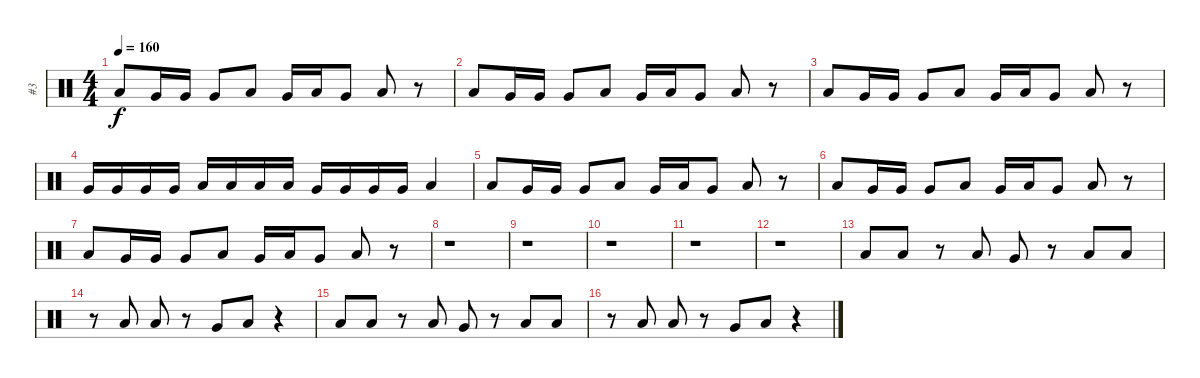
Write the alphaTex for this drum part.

\track ("#3" "#3") {instrument percussion}
\staff {score}
\articulation defaults
\ts (4 4)
\tempo 160
\clef neutral
\ks c "Low Tom (hit)".8{dy f} "Very Low Tom (hit)".16 "Very Low Tom (hit)".16 "Very Low Tom (hit)".8 "Low Tom (hit)".8 "Very Low Tom (hit)".16 "Low Tom (hit)".16 "Very Low Tom (hit)".8 "Low Tom (hit)".8
r.8 |
"Low Tom (hit)".8 "Very Low Tom (hit)".16 "Very Low Tom (hit)".16 "Very Low Tom (hit)".8 "Low Tom (hit)".8 "Very Low Tom (hit)".16 "Low Tom (hit)".16 "Very Low Tom (hit)".8 "Low Tom (hit)".8 r.8 |
"Low Tom (hit)".8 "Very Low Tom (hit)".16 "Very Low Tom (hit)".16 "Very Low Tom (hit)".8 "Low Tom (hit)".8 "Very Low Tom (hit)".16 "Low Tom (hit)".16 "Very Low Tom (hit)".8 "Low Tom (hit)".8 r.8 |
"Very Low Tom (hit)".16 "Very Low Tom (hit)".16 "Very Low Tom (hit)".16 "Very Low Tom (hit)".16 "Low Tom (hit)".16 "Low Tom (hit)".16 "Low Tom (hit)".16 "Low Tom (hit)".16 "Very Low Tom (hit)".16 "Very Low Tom (hit)".16 "Very Low Tom (hit)".16 "Very Low Tom (hit)".16 "Low Tom (hit)".4 |
"Low Tom (hit)".8 "Very Low Tom (hit)".16 "Very Low Tom (hit)".16 "Very Low Tom (hit)".8 "Low Tom (hit)".8 "Very Low Tom (hit)".16 "Low Tom (hit)".16 "Very Low Tom (hit)".8 "Low Tom (hit)".8 r.8 |
"Low Tom (hit)".8 "Very Low Tom (hit)".16 "Very Low Tom (hit)".16 "Very Low Tom (hit)".8 "Low Tom (hit)".8 "Very Low Tom (hit)".16 "Low Tom (hit)".16 "Very Low Tom (hit)".8 "Low Tom (hit)".8 r.8 |
"Low Tom (hit)".8 "Very Low Tom (hit)".16 "Very Low Tom (hit)".16 "Very Low Tom (hit)".8 "Low Tom (hit)".8 "Very Low Tom (hit)".16 "Low Tom (hit)".16 "Very Low Tom (hit)".8 "Low Tom (hit)".8 r.8 |
r.1 |
r.1 |
r.1 |
r.1 |
r.1 |
"Low Tom (hit)".8 "Low Tom (hit)".8 r.8 "Low Tom (hit)".8 "Very Low Tom (hit)".8 r.8 "Low Tom (hit)".8 "Low Tom (hit)".8 |
r.8 "Low Tom (hit)".8 "Low Tom (hit)".8 r.8 "Very Low Tom (hit)".8 "Low Tom (hit)".8 r.4 |
"Low Tom (hit)".8 "Low Tom (hit)".8 r.8 "Low Tom (hit)".8 "Very Low Tom (hit)".8 r.8 "Low Tom (hit)".8 "Low Tom (hit)".8 |
r.8 "Low Tom (hit)".8 "Low Tom (hit)".8 r.8 "Very Low Tom (hit)".8 "Low Tom (hit)".8 r.4
